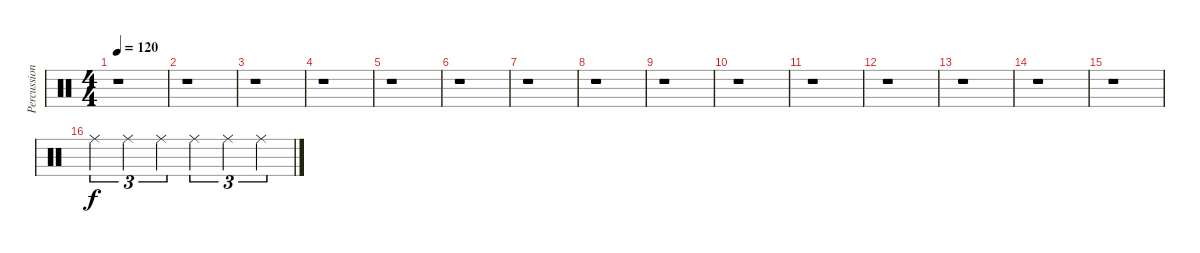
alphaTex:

\track ("Percussions" "Percussion") {instrument percussion}
\staff {score}
\articulation defaults
\ts (4 4)
\tempo 120
\clef neutral
\ks c
r.1{dy f} |
r.1 |
r.1 |
r.1 |
r.1 |
r.1 |
r.1 |
r.1 |
r.1 |
r.1 |
r.1 |
r.1 |
r.1 |
r.1 |
r.1 |
"Ride (middle)".4{tu (3 2)} "Ride (middle)".4{tu (3 2)} "Ride (middle)".4{tu (3 2)} "Ride (middle)".4{tu (3 2)} "Ride (middle)".4{tu (3 2)} "Ride (middle)".4{tu (3 2)}
